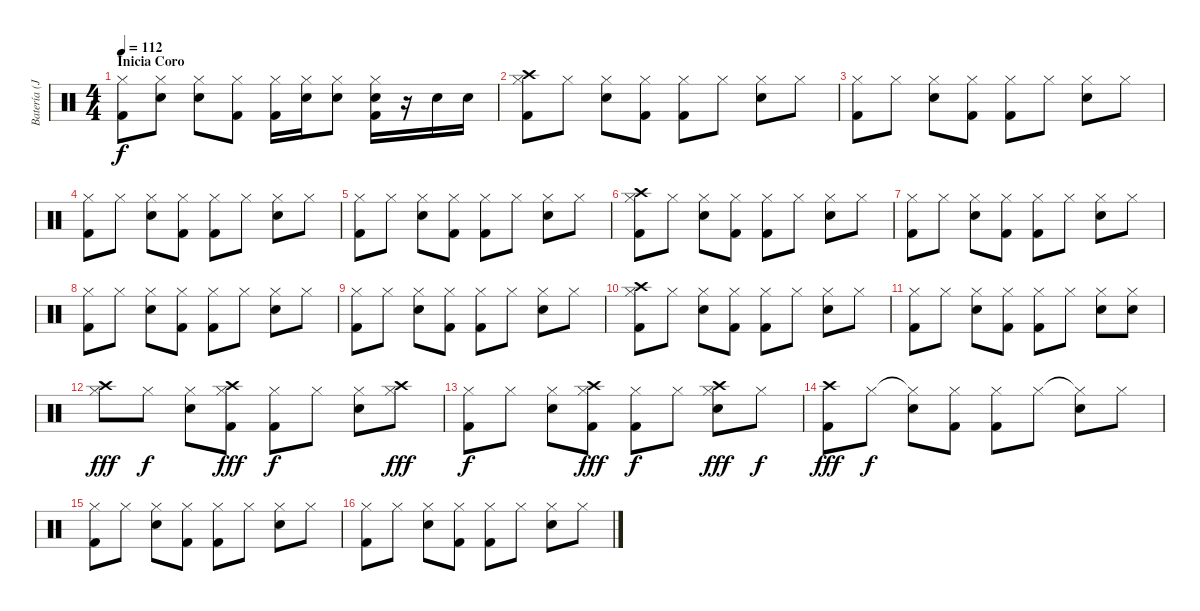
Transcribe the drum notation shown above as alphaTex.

\track ("Batería (Javi Molina)" "Batería (J") {instrument percussion}
\staff {score}
\articulation defaults
\ts (4 4)
\section ("" "Inicia Coro")
\tempo 112
\clef neutral
\ks c
("Hi-Hat (closed)" "Kick (hit) 2").8{dy f} ("Hi-Hat (closed)" "Electric Snare (hit)").8 ("Hi-Hat (closed)" "Electric Snare (hit)").8 ("Hi-Hat (closed)" "Kick (hit) 2").8 ("Hi-Hat (closed)" "Kick (hit) 2").16 ("Hi-Hat (closed)" "Electric Snare (hit)").16 ("Hi-Hat (closed)" "Electric Snare (hit)").8 ("Hi-Hat (closed)" "Kick (hit) 2" "Electric Snare (hit)").16 r.16 "Electric Snare (hit)".16 "Electric Snare (hit)".16 |
("Hi-Hat (closed)" "Kick (hit) 2" "Crash high (hit)").8 "Hi-Hat (closed)".8 ("Hi-Hat (closed)" "Electric Snare (hit)").8 ("Hi-Hat (closed)" "Kick (hit) 2").8 ("Hi-Hat (closed)" "Kick (hit) 2").8 "Hi-Hat (closed)".8 ("Hi-Hat (closed)" "Electric Snare (hit)").8 "Hi-Hat (closed)".8 |
("Hi-Hat (closed)" "Kick (hit) 2").8 "Hi-Hat (closed)".8 ("Hi-Hat (closed)" "Electric Snare (hit)").8 ("Hi-Hat (closed)" "Kick (hit) 2").8 ("Hi-Hat (closed)" "Kick (hit) 2").8 "Hi-Hat (closed)".8 ("Hi-Hat (closed)" "Electric Snare (hit)").8 "Hi-Hat (closed)".8 |
("Hi-Hat (closed)" "Kick (hit) 2").8 "Hi-Hat (closed)".8 ("Hi-Hat (closed)" "Electric Snare (hit)").8 ("Hi-Hat (closed)" "Kick (hit) 2").8 ("Hi-Hat (closed)" "Kick (hit) 2").8 "Hi-Hat (closed)".8 ("Hi-Hat (closed)" "Electric Snare (hit)").8 "Hi-Hat (closed)".8 |
("Hi-Hat (closed)" "Kick (hit) 2").8 "Hi-Hat (closed)".8 ("Hi-Hat (closed)" "Electric Snare (hit)").8 ("Hi-Hat (closed)" "Kick (hit) 2").8 ("Hi-Hat (closed)" "Kick (hit) 2").8 "Hi-Hat (closed)".8 ("Hi-Hat (closed)" "Electric Snare (hit)").8 "Hi-Hat (closed)".8 |
("Hi-Hat (closed)" "Kick (hit) 2" "Crash high (hit)").8 "Hi-Hat (closed)".8 ("Hi-Hat (closed)" "Electric Snare (hit)").8 ("Hi-Hat (closed)" "Kick (hit) 2").8 ("Hi-Hat (closed)" "Kick (hit) 2").8 "Hi-Hat (closed)".8 ("Hi-Hat (closed)" "Electric Snare (hit)").8 "Hi-Hat (closed)".8 |
("Hi-Hat (closed)" "Kick (hit) 2").8 "Hi-Hat (closed)".8 ("Hi-Hat (closed)" "Electric Snare (hit)").8 ("Hi-Hat (closed)" "Kick (hit) 2").8 ("Hi-Hat (closed)" "Kick (hit) 2").8 "Hi-Hat (closed)".8 ("Hi-Hat (closed)" "Electric Snare (hit)").8 "Hi-Hat (closed)".8 |
("Hi-Hat (closed)" "Kick (hit) 2").8 "Hi-Hat (closed)".8 ("Hi-Hat (closed)" "Electric Snare (hit)").8 ("Hi-Hat (closed)" "Kick (hit) 2").8 ("Hi-Hat (closed)" "Kick (hit) 2").8 "Hi-Hat (closed)".8 ("Hi-Hat (closed)" "Electric Snare (hit)").8 "Hi-Hat (closed)".8 |
("Hi-Hat (closed)" "Kick (hit) 2").8 "Hi-Hat (closed)".8 ("Hi-Hat (closed)" "Electric Snare (hit)").8 ("Hi-Hat (closed)" "Kick (hit) 2").8 ("Hi-Hat (closed)" "Kick (hit) 2").8 "Hi-Hat (closed)".8 ("Hi-Hat (closed)" "Electric Snare (hit)").8 "Hi-Hat (closed)".8 |
("Hi-Hat (closed)" "Kick (hit) 2" "Crash high (hit)").8 "Hi-Hat (closed)".8 ("Hi-Hat (closed)" "Electric Snare (hit)").8 ("Hi-Hat (closed)" "Kick (hit) 2").8 ("Hi-Hat (closed)" "Kick (hit) 2").8 "Hi-Hat (closed)".8 ("Hi-Hat (closed)" "Electric Snare (hit)").8 "Hi-Hat (closed)".8 |
("Hi-Hat (closed)" "Kick (hit) 2").8 "Hi-Hat (closed)".8 ("Hi-Hat (closed)" "Electric Snare (hit)").8 ("Hi-Hat (closed)" "Kick (hit) 2").8 ("Hi-Hat (closed)" "Kick (hit) 2").8 "Hi-Hat (closed)".8 ("Hi-Hat (closed)" "Electric Snare (hit)").8 ("Hi-Hat (closed)" "Electric Snare (hit)").8 |
("Hi-Hat (closed)" "Crash high (hit)").8{dy fff} "Hi-Hat (closed)".8{dy f} ("Hi-Hat (closed)" "Electric Snare (hit)").8 ("Hi-Hat (closed)" "Crash high (hit)" "Kick (hit) 2").8{dy fff} ("Hi-Hat (closed)" "Kick (hit) 2").8{dy f} "Hi-Hat (closed)".8 ("Hi-Hat (closed)" "Electric Snare (hit)").8 ("Hi-Hat (closed)" "Crash high (hit)").8{dy fff} |
("Hi-Hat (closed)" "Kick (hit) 2").8{dy f} "Hi-Hat (closed)".8 ("Hi-Hat (closed)" "Electric Snare (hit)").8 ("Hi-Hat (closed)" "Crash high (hit)" "Kick (hit) 2").8{dy fff} ("Hi-Hat (closed)" "Kick (hit) 2").8{dy f} "Hi-Hat (closed)".8 ("Hi-Hat (closed)" "Crash high (hit)" "Electric Snare (hit)").8{dy fff} "Hi-Hat (closed)".8{dy f} |
("Kick (hit) 2" "Crash high (hit)").8{dy fff} "Hi-Hat (closed)".8{dy f} ("Hi-Hat (closed)"{t} "Electric Snare (hit)").8 ("Hi-Hat (closed)" "Kick (hit) 2").8 ("Hi-Hat (closed)" "Kick (hit) 2").8 "Hi-Hat (closed)".8 ("Hi-Hat (closed)"{t} "Electric Snare (hit)").8 "Hi-Hat (closed)".8 |
("Hi-Hat (closed)" "Kick (hit) 2").8 "Hi-Hat (closed)".8 ("Hi-Hat (closed)" "Electric Snare (hit)").8 ("Hi-Hat (closed)" "Kick (hit) 2").8 ("Hi-Hat (closed)" "Kick (hit) 2").8 "Hi-Hat (closed)".8 ("Hi-Hat (closed)" "Electric Snare (hit)").8 "Hi-Hat (closed)".8 |
("Hi-Hat (closed)" "Kick (hit) 2").8 "Hi-Hat (closed)".8 ("Hi-Hat (closed)" "Electric Snare (hit)").8 ("Hi-Hat (closed)" "Kick (hit) 2").8 ("Hi-Hat (closed)" "Kick (hit) 2").8 "Hi-Hat (closed)".8 ("Hi-Hat (closed)" "Electric Snare (hit)").8 "Hi-Hat (closed)".8
